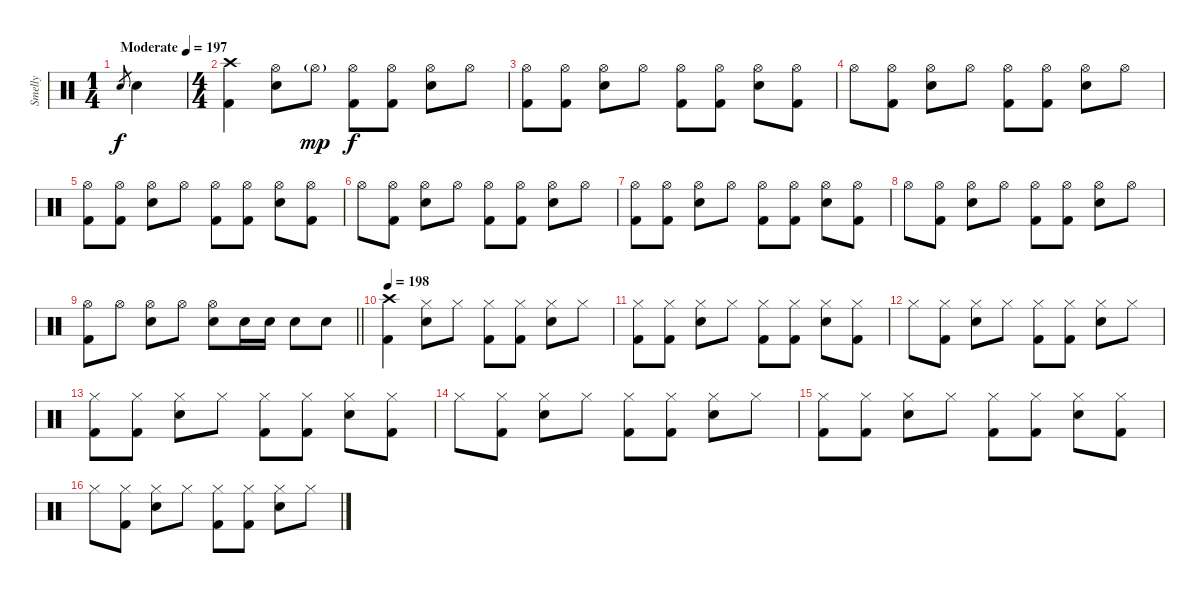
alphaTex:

\track ("Smelly" "Smelly") {instrument percussion}
\staff {score}
\articulation defaults
\ts (1 4)
\tempo (197 "Moderate")
\clef neutral
\ks c "Electric Snare (hit)".8{gr dy f} "Electric Snare (hit)".4
|
\ts (4 4)
("Crash high (hit)" "Kick (hit) 2").4 ("Hi-Hat (open)" "Electric Snare (hit)").8 "Hi-Hat (open)"{g}.8{dy mp} ("Hi-Hat (open)" "Kick (hit) 2").8{dy f} ("Hi-Hat (open)" "Kick (hit) 2").8 ("Hi-Hat (open)" "Electric Snare (hit)").8 "Hi-Hat (open)".8 |
("Hi-Hat (open)" "Kick (hit) 2").8 ("Hi-Hat (open)" "Kick (hit) 2").8 ("Hi-Hat (open)" "Electric Snare (hit)").8 "Hi-Hat (open)".8 ("Hi-Hat (open)" "Kick (hit) 2").8 ("Hi-Hat (open)" "Kick (hit) 2").8 ("Hi-Hat (open)" "Electric Snare (hit)").8 ("Hi-Hat (open)" "Kick (hit) 2").8 |
"Hi-Hat (open)".8 ("Hi-Hat (open)" "Kick (hit) 2").8 ("Hi-Hat (open)" "Electric Snare (hit)").8 "Hi-Hat (open)".8 ("Hi-Hat (open)" "Kick (hit) 2").8 ("Hi-Hat (open)" "Kick (hit) 2").8 ("Hi-Hat (open)" "Electric Snare (hit)").8 "Hi-Hat (open)".8 |
("Hi-Hat (open)" "Kick (hit) 2").8 ("Hi-Hat (open)" "Kick (hit) 2").8 ("Hi-Hat (open)" "Electric Snare (hit)").8 "Hi-Hat (open)".8 ("Hi-Hat (open)" "Kick (hit) 2").8 ("Hi-Hat (open)" "Kick (hit) 2").8 ("Hi-Hat (open)" "Electric Snare (hit)").8 ("Hi-Hat (open)" "Kick (hit) 2").8 |
"Hi-Hat (open)".8 ("Hi-Hat (open)" "Kick (hit) 2").8 ("Hi-Hat (open)" "Electric Snare (hit)").8 "Hi-Hat (open)".8 ("Hi-Hat (open)" "Kick (hit) 2").8 ("Hi-Hat (open)" "Kick (hit) 2").8 ("Hi-Hat (open)" "Electric Snare (hit)").8 "Hi-Hat (open)".8 |
("Hi-Hat (open)" "Kick (hit) 2").8 ("Hi-Hat (open)" "Kick (hit) 2").8 ("Hi-Hat (open)" "Electric Snare (hit)").8 "Hi-Hat (open)".8 ("Hi-Hat (open)" "Kick (hit) 2").8 ("Hi-Hat (open)" "Kick (hit) 2").8 ("Hi-Hat (open)" "Electric Snare (hit)").8 ("Hi-Hat (open)" "Kick (hit) 2").8 |
"Hi-Hat (open)".8 ("Hi-Hat (open)" "Kick (hit) 2").8 ("Hi-Hat (open)" "Electric Snare (hit)").8 "Hi-Hat (open)".8 ("Hi-Hat (open)" "Kick (hit) 2").8 ("Hi-Hat (open)" "Kick (hit) 2").8 ("Hi-Hat (open)" "Electric Snare (hit)").8 "Hi-Hat (open)".8 |
\barLineRight lightlight
("Hi-Hat (open)" "Kick (hit) 2").8 "Hi-Hat (open)".8 ("Hi-Hat (open)" "Electric Snare (hit)").8 "Hi-Hat (open)".8 ("Hi-Hat (open)" "Electric Snare (hit)").8 "Electric Snare (hit)".16 "Electric Snare (hit)".16 "Electric Snare (hit)".8 "Electric Snare (hit)".8 |
\section ("" "")
\tempo 198
("Crash high (hit)" "Kick (hit) 2").4 ("Hi-Hat (closed)" "Electric Snare (hit)").8 "Hi-Hat (closed)".8 ("Hi-Hat (closed)" "Kick (hit) 2").8 ("Hi-Hat (closed)" "Kick (hit) 2").8 ("Hi-Hat (closed)" "Electric Snare (hit)").8 "Hi-Hat (closed)".8 |
("Hi-Hat (closed)" "Kick (hit) 2").8 ("Hi-Hat (closed)" "Kick (hit) 2").8 ("Hi-Hat (closed)" "Electric Snare (hit)").8 "Hi-Hat (closed)".8 ("Hi-Hat (closed)" "Kick (hit) 2").8 ("Hi-Hat (closed)" "Kick (hit) 2").8 ("Hi-Hat (closed)" "Electric Snare (hit)").8 ("Hi-Hat (closed)" "Kick (hit) 2").8 |
"Hi-Hat (closed)".8 ("Hi-Hat (closed)" "Kick (hit) 2").8 ("Hi-Hat (closed)" "Electric Snare (hit)").8 "Hi-Hat (closed)".8 ("Hi-Hat (closed)" "Kick (hit) 2").8 ("Hi-Hat (closed)" "Kick (hit) 2").8 ("Hi-Hat (closed)" "Electric Snare (hit)").8 "Hi-Hat (closed)".8 |
("Hi-Hat (closed)" "Kick (hit) 2").8 ("Hi-Hat (closed)" "Kick (hit) 2").8 ("Hi-Hat (closed)" "Electric Snare (hit)").8 "Hi-Hat (closed)".8 ("Hi-Hat (closed)" "Kick (hit) 2").8 ("Hi-Hat (closed)" "Kick (hit) 2").8 ("Hi-Hat (closed)" "Electric Snare (hit)").8 ("Hi-Hat (closed)" "Kick (hit) 2").8 |
"Hi-Hat (closed)".8 ("Hi-Hat (closed)" "Kick (hit) 2").8 ("Hi-Hat (closed)" "Electric Snare (hit)").8 "Hi-Hat (closed)".8 ("Hi-Hat (closed)" "Kick (hit) 2").8 ("Hi-Hat (closed)" "Kick (hit) 2").8 ("Hi-Hat (closed)" "Electric Snare (hit)").8 "Hi-Hat (closed)".8 |
("Hi-Hat (closed)" "Kick (hit) 2").8 ("Hi-Hat (closed)" "Kick (hit) 2").8 ("Hi-Hat (closed)" "Electric Snare (hit)").8 "Hi-Hat (closed)".8 ("Hi-Hat (closed)" "Kick (hit) 2").8 ("Hi-Hat (closed)" "Kick (hit) 2").8 ("Hi-Hat (closed)" "Electric Snare (hit)").8 ("Hi-Hat (closed)" "Kick (hit) 2").8 |
"Hi-Hat (closed)".8 ("Hi-Hat (closed)" "Kick (hit) 2").8 ("Hi-Hat (closed)" "Electric Snare (hit)").8 "Hi-Hat (closed)".8 ("Hi-Hat (closed)" "Kick (hit) 2").8 ("Hi-Hat (closed)" "Kick (hit) 2").8 ("Hi-Hat (closed)" "Electric Snare (hit)").8 "Hi-Hat (closed)".8
